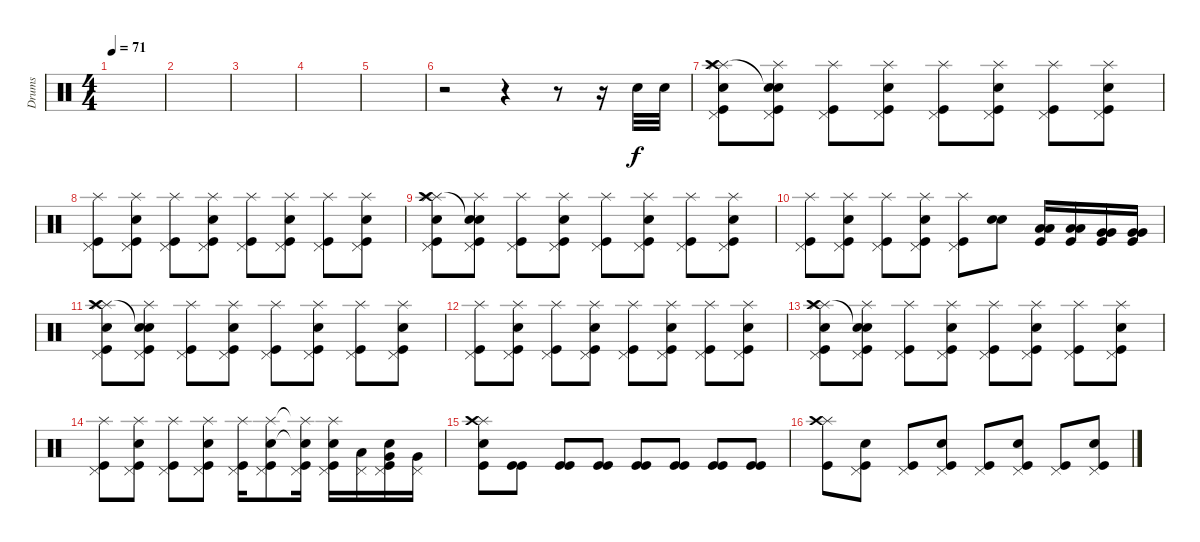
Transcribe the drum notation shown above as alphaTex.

\track ("Drums" "Drums") {instrument percussion}
\staff {score}
\articulation defaults
\ts (4 4)
\tempo 71
\clef neutral
\ks c
|
|
|
|
|
r.2 r.4 r.8 r.16 "Snare (hit) 2".32 "Snare (hit) 2".32 |
("Snare (hit) 2" "Splash (hit)" "Kick (hit)" "Pedal Hi-Hat (hit)" "Crash high (hit)" "Splash (hit)").8 ("Snare (hit) 2" "Splash (hit)" "Kick (hit)" "Pedal Hi-Hat (hit)" "Snare (hit)"{t}).8 ("Splash (hit)" "Kick (hit)" "Pedal Hi-Hat (hit)").8 ("Electric Snare (hit)" "Splash (hit)" "Kick (hit)" "Pedal Hi-Hat (hit)").8 ("Splash (hit)" "Kick (hit)" "Pedal Hi-Hat (hit)").8 ("Snare (hit) 2" "Splash (hit)" "Kick (hit)" "Pedal Hi-Hat (hit)").8 ("Splash (hit)" "Kick (hit)" "Pedal Hi-Hat (hit)").8 ("Electric Snare (hit)" "Splash (hit)" "Kick (hit)" "Pedal Hi-Hat (hit)").8 |
("Splash (hit)" "Kick (hit)" "Pedal Hi-Hat (hit)").8 ("Snare (hit) 2" "Splash (hit)" "Kick (hit)" "Pedal Hi-Hat (hit)").8 ("Splash (hit)" "Kick (hit)" "Pedal Hi-Hat (hit)").8 ("Electric Snare (hit)" "Splash (hit)" "Kick (hit)" "Pedal Hi-Hat (hit)").8 ("Splash (hit)" "Kick (hit)" "Pedal Hi-Hat (hit)").8 ("Snare (hit) 2" "Splash (hit)" "Kick (hit)" "Pedal Hi-Hat (hit)").8 ("Splash (hit)" "Kick (hit)" "Pedal Hi-Hat (hit)").8 ("Electric Snare (hit)" "Splash (hit)" "Kick (hit)" "Pedal Hi-Hat (hit)").8 |
("Snare (hit) 2" "Splash (hit)" "Kick (hit)" "Pedal Hi-Hat (hit)" "Crash high (hit)" "Splash (hit)").8 ("Snare (hit) 2" "Splash (hit)" "Kick (hit)" "Pedal Hi-Hat (hit)" "Snare (hit)"{t}).8 ("Splash (hit)" "Kick (hit)" "Pedal Hi-Hat (hit)").8 ("Electric Snare (hit)" "Splash (hit)" "Kick (hit)" "Pedal Hi-Hat (hit)").8 ("Splash (hit)" "Kick (hit)" "Pedal Hi-Hat (hit)").8 ("Snare (hit) 2" "Splash (hit)" "Kick (hit)" "Pedal Hi-Hat (hit)").8 ("Splash (hit)" "Kick (hit)" "Pedal Hi-Hat (hit)").8 ("Electric Snare (hit)" "Splash (hit)" "Kick (hit)" "Pedal Hi-Hat (hit)").8 |
("Splash (hit)" "Kick (hit)" "Pedal Hi-Hat (hit)").8 ("Snare (hit) 2" "Splash (hit)" "Kick (hit)" "Pedal Hi-Hat (hit)").8 ("Splash (hit)" "Kick (hit)" "Pedal Hi-Hat (hit)").8 ("Electric Snare (hit)" "Splash (hit)" "Kick (hit)" "Pedal Hi-Hat (hit)").8 ("Splash (hit)" "Kick (hit)" "Pedal Hi-Hat (hit)").8 ("Snare (hit) 2" "Snare (hit) 2").8 ("Low Floor Tom (hit)" "Low Floor Tom (hit)" "Kick (hit)").16 ("Low Floor Tom (hit)" "Low Floor Tom (hit)" "Kick (hit)").16 ("Very Low Tom (hit)" "Very Low Tom (hit)" "Kick (hit)").16 ("Very Low Tom (hit)" "Very Low Tom (hit)" "Kick (hit)").16 |
("Snare (hit) 2" "Splash (hit)" "Kick (hit)" "Pedal Hi-Hat (hit)" "Crash high (hit)" "Splash (hit)").8 ("Snare (hit) 2" "Splash (hit)" "Kick (hit)" "Pedal Hi-Hat (hit)" "Snare (hit)"{t}).8 ("Splash (hit)" "Kick (hit)" "Pedal Hi-Hat (hit)").8 ("Electric Snare (hit)" "Splash (hit)" "Kick (hit)" "Pedal Hi-Hat (hit)").8 ("Splash (hit)" "Kick (hit)" "Pedal Hi-Hat (hit)").8 ("Snare (hit) 2" "Splash (hit)" "Kick (hit)" "Pedal Hi-Hat (hit)").8 ("Splash (hit)" "Kick (hit)" "Pedal Hi-Hat (hit)").8 ("Electric Snare (hit)" "Splash (hit)" "Kick (hit)" "Pedal Hi-Hat (hit)").8 |
("Splash (hit)" "Kick (hit)" "Pedal Hi-Hat (hit)").8 ("Snare (hit) 2" "Splash (hit)" "Kick (hit)" "Pedal Hi-Hat (hit)").8 ("Splash (hit)" "Kick (hit)" "Pedal Hi-Hat (hit)").8 ("Electric Snare (hit)" "Splash (hit)" "Kick (hit)" "Pedal Hi-Hat (hit)").8 ("Splash (hit)" "Kick (hit)" "Pedal Hi-Hat (hit)").8 ("Snare (hit) 2" "Splash (hit)" "Kick (hit)" "Pedal Hi-Hat (hit)").8 ("Splash (hit)" "Kick (hit)" "Pedal Hi-Hat (hit)").8 ("Electric Snare (hit)" "Splash (hit)" "Kick (hit)" "Pedal Hi-Hat (hit)").8 |
("Snare (hit) 2" "Splash (hit)" "Kick (hit)" "Pedal Hi-Hat (hit)" "Crash high (hit)" "Splash (hit)").8 ("Snare (hit) 2" "Splash (hit)" "Kick (hit)" "Pedal Hi-Hat (hit)" "Snare (hit)"{t}).8 ("Splash (hit)" "Kick (hit)" "Pedal Hi-Hat (hit)").8 ("Electric Snare (hit)" "Splash (hit)" "Kick (hit)" "Pedal Hi-Hat (hit)").8 ("Splash (hit)" "Kick (hit)" "Pedal Hi-Hat (hit)").8 ("Snare (hit) 2" "Splash (hit)" "Kick (hit)" "Pedal Hi-Hat (hit)").8 ("Splash (hit)" "Kick (hit)" "Pedal Hi-Hat (hit)").8 ("Electric Snare (hit)" "Splash (hit)" "Kick (hit)" "Pedal Hi-Hat (hit)").8 |
("Splash (hit)" "Kick (hit)" "Pedal Hi-Hat (hit)").8 ("Snare (hit) 2" "Splash (hit)" "Kick (hit)" "Pedal Hi-Hat (hit)").8 ("Splash (hit)" "Kick (hit)" "Pedal Hi-Hat (hit)").8 ("Electric Snare (hit)" "Splash (hit)" "Kick (hit)" "Pedal Hi-Hat (hit)").8 ("Splash (hit)" "Kick (hit)" "Pedal Hi-Hat (hit)").16 ("Snare (hit) 2" "Splash (hit)" "Kick (hit)" "Pedal Hi-Hat (hit)").8 ("Snare (hit) 2"{t} "Splash (hit)"{t} "Kick (hit)" "Pedal Hi-Hat (hit)").16 ("Electric Snare (hit)" "Splash (hit)" "Kick (hit)" "Pedal Hi-Hat (hit)").16 ("Low Floor Tom (hit)" "Pedal Hi-Hat (hit)").16 ("Electric Snare (hit)" "Kick (hit)" "Very Low Tom (hit)" "Pedal Hi-Hat (hit)").16 ("Very Low Tom (hit)" "Pedal Hi-Hat (hit)").16 |
("Splash (hit)" "Kick (hit)" "Metronome (bell)" "Crash high (hit)").8 ("Kick (hit)" "Kick (hit)").8 ("Kick (hit)" "Kick (hit)").8 ("Kick (hit)" "Kick (hit)").8 ("Kick (hit)" "Kick (hit)").8 ("Kick (hit)" "Kick (hit)").8 ("Kick (hit)" "Kick (hit)").8 ("Kick (hit)" "Kick (hit)").8 |
("Kick (hit)" "Splash (hit)" "Crash high (hit)").8 ("Snare (hit) 2" "Kick (hit)" "Pedal Hi-Hat (hit)").8 ("Kick (hit)" "Pedal Hi-Hat (hit)").8 ("Electric Snare (hit)" "Kick (hit)" "Pedal Hi-Hat (hit)").8 ("Kick (hit)" "Pedal Hi-Hat (hit)").8 ("Snare (hit) 2" "Kick (hit)" "Pedal Hi-Hat (hit)").8 ("Kick (hit)" "Pedal Hi-Hat (hit)").8 ("Electric Snare (hit)" "Kick (hit)" "Pedal Hi-Hat (hit)").8
